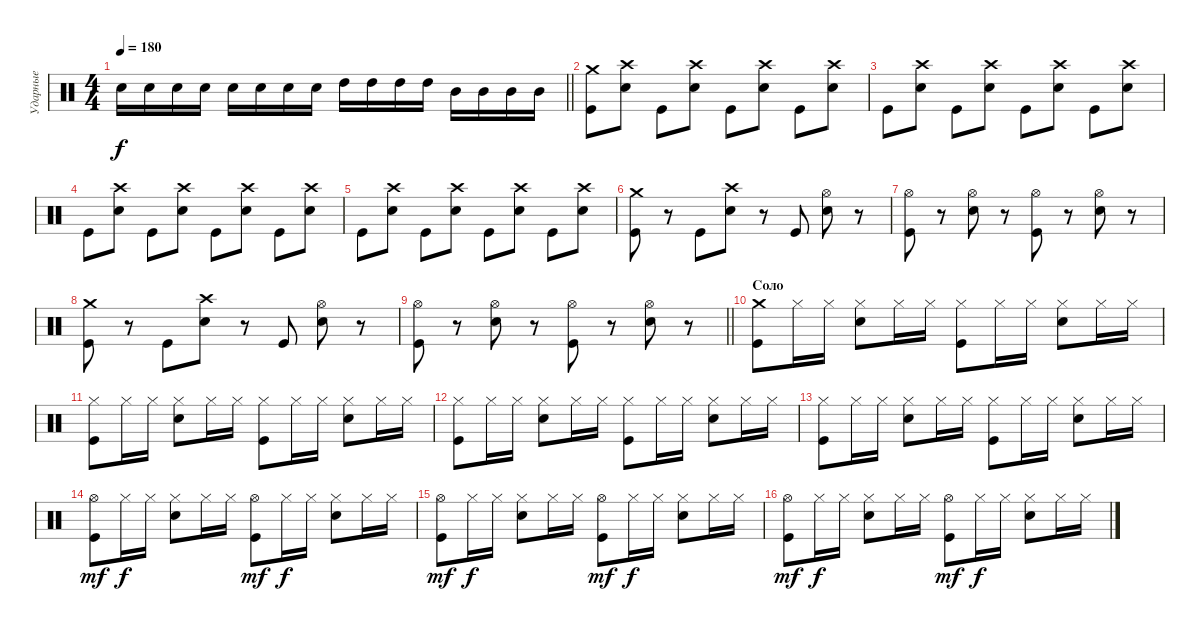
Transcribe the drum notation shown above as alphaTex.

\track ("Ударные" "Ударные") {instrument percussion}
\staff {score}
\articulation defaults
\ts (4 4)
\tempo 180
\clef neutral
\barLineRight lightlight
\ks c "Electric Snare (hit)".16{dy f} "Electric Snare (hit)".16 "Electric Snare (hit)".16 "Electric Snare (hit)".16 "Electric Snare (hit)".16 "Electric Snare (hit)".16 "Electric Snare (hit)".16 "Electric Snare (hit)".16 "High Tom (hit)".16 "High Tom (hit)".16 "High Tom (hit)".16 "High Tom (hit)".16 "Mid Tom (hit)".16 "Mid Tom (hit)".16 "Mid Tom (hit)".16 "Mid Tom (hit)".16
|
\section ("" " ")
("Crash medium (hit)" "Kick (hit)").8 ("Crash high (hit)" "Electric Snare (hit)").8 "Kick (hit)".8 ("Crash high (hit)" "Electric Snare (hit)").8 "Kick (hit)".8 ("Crash high (hit)" "Electric Snare (hit)").8 "Kick (hit)".8 ("Crash high (hit)" "Electric Snare (hit)").8 |
"Kick (hit)".8 ("Crash high (hit)" "Electric Snare (hit)").8 "Kick (hit)".8 ("Crash high (hit)" "Electric Snare (hit)").8 "Kick (hit)".8 ("Crash high (hit)" "Electric Snare (hit)").8 "Kick (hit)".8 ("Crash high (hit)" "Electric Snare (hit)").8 |
"Kick (hit)".8 ("Crash high (hit)" "Electric Snare (hit)").8 "Kick (hit)".8 ("Crash high (hit)" "Electric Snare (hit)").8 "Kick (hit)".8 ("Crash high (hit)" "Electric Snare (hit)").8 "Kick (hit)".8 ("Crash high (hit)" "Electric Snare (hit)").8 |
"Kick (hit)".8 ("Crash high (hit)" "Electric Snare (hit)").8 "Kick (hit)".8 ("Crash high (hit)" "Electric Snare (hit)").8 "Kick (hit)".8 ("Crash high (hit)" "Electric Snare (hit)").8 "Kick (hit)".8 ("Crash high (hit)" "Electric Snare (hit)").8 |
("Crash medium (hit)" "Kick (hit)").8 r.8 "Kick (hit)".8 ("Crash high (hit)" "Electric Snare (hit)").8 r.8 "Kick (hit)".8 ("Hi-Hat (open)" "Electric Snare (hit)").8 r.8 |
("Hi-Hat (open)" "Kick (hit)").8 r.8 ("Hi-Hat (open)" "Electric Snare (hit)").8 r.8 ("Hi-Hat (open)" "Kick (hit)").8 r.8 ("Hi-Hat (open)" "Electric Snare (hit)").8 r.8 |
("Crash medium (hit)" "Kick (hit)").8 r.8 "Kick (hit)".8 ("Crash high (hit)" "Electric Snare (hit)").8 r.8 "Kick (hit)".8 ("Hi-Hat (open)" "Electric Snare (hit)").8 r.8 |
\barLineRight lightlight
("Hi-Hat (open)" "Kick (hit)").8 r.8 ("Hi-Hat (open)" "Electric Snare (hit)").8 r.8 ("Hi-Hat (open)" "Kick (hit)").8 r.8 ("Hi-Hat (open)" "Electric Snare (hit)").8 r.8 |
\section ("" "Соло")
("Crash medium (hit)" "Kick (hit)").8 "Hi-Hat (closed)".16 "Hi-Hat (closed)".16 ("Hi-Hat (closed)" "Electric Snare (hit)").8 "Hi-Hat (closed)".16 "Hi-Hat (closed)".16 ("Hi-Hat (closed)" "Kick (hit)").8 "Hi-Hat (closed)".16 "Hi-Hat (closed)".16 ("Hi-Hat (closed)" "Electric Snare (hit)").8 "Hi-Hat (closed)".16 "Hi-Hat (closed)".16 |
("Hi-Hat (closed)" "Kick (hit)").8 "Hi-Hat (closed)".16 "Hi-Hat (closed)".16 ("Hi-Hat (closed)" "Electric Snare (hit)").8 "Hi-Hat (closed)".16 "Hi-Hat (closed)".16 ("Hi-Hat (closed)" "Kick (hit)").8 "Hi-Hat (closed)".16 "Hi-Hat (closed)".16 ("Hi-Hat (closed)" "Electric Snare (hit)").8 "Hi-Hat (closed)".16 "Hi-Hat (closed)".16 |
("Hi-Hat (closed)" "Kick (hit)").8 "Hi-Hat (closed)".16 "Hi-Hat (closed)".16 ("Hi-Hat (closed)" "Electric Snare (hit)").8 "Hi-Hat (closed)".16 "Hi-Hat (closed)".16 ("Hi-Hat (closed)" "Kick (hit)").8 "Hi-Hat (closed)".16 "Hi-Hat (closed)".16 ("Hi-Hat (closed)" "Electric Snare (hit)").8 "Hi-Hat (closed)".16 "Hi-Hat (closed)".16 |
("Hi-Hat (closed)" "Kick (hit)").8 "Hi-Hat (closed)".16 "Hi-Hat (closed)".16 ("Hi-Hat (closed)" "Electric Snare (hit)").8 "Hi-Hat (closed)".16 "Hi-Hat (closed)".16 ("Hi-Hat (closed)" "Kick (hit)").8 "Hi-Hat (closed)".16 "Hi-Hat (closed)".16 ("Hi-Hat (closed)" "Electric Snare (hit)").8 "Hi-Hat (closed)".16 "Hi-Hat (closed)".16 |
("Hi-Hat (open)" "Kick (hit)").8{dy mf} "Hi-Hat (closed)".16{dy f} "Hi-Hat (closed)".16 ("Hi-Hat (closed)" "Electric Snare (hit)").8 "Hi-Hat (closed)".16 "Hi-Hat (closed)".16 ("Hi-Hat (open)" "Kick (hit)").8{dy mf} "Hi-Hat (closed)".16{dy f} "Hi-Hat (closed)".16 ("Hi-Hat (closed)" "Electric Snare (hit)").8 "Hi-Hat (closed)".16 "Hi-Hat (closed)".16 |
("Hi-Hat (open)" "Kick (hit)").8{dy mf} "Hi-Hat (closed)".16{dy f} "Hi-Hat (closed)".16 ("Hi-Hat (closed)" "Electric Snare (hit)").8 "Hi-Hat (closed)".16 "Hi-Hat (closed)".16 ("Hi-Hat (open)" "Kick (hit)").8{dy mf} "Hi-Hat (closed)".16{dy f} "Hi-Hat (closed)".16 ("Hi-Hat (closed)" "Electric Snare (hit)").8 "Hi-Hat (closed)".16 "Hi-Hat (closed)".16 |
("Hi-Hat (open)" "Kick (hit)").8{dy mf} "Hi-Hat (closed)".16{dy f} "Hi-Hat (closed)".16 ("Hi-Hat (closed)" "Electric Snare (hit)").8 "Hi-Hat (closed)".16 "Hi-Hat (closed)".16 ("Hi-Hat (open)" "Kick (hit)").8{dy mf} "Hi-Hat (closed)".16{dy f} "Hi-Hat (closed)".16 ("Hi-Hat (closed)" "Electric Snare (hit)").8 "Hi-Hat (closed)".16 "Hi-Hat (closed)".16
